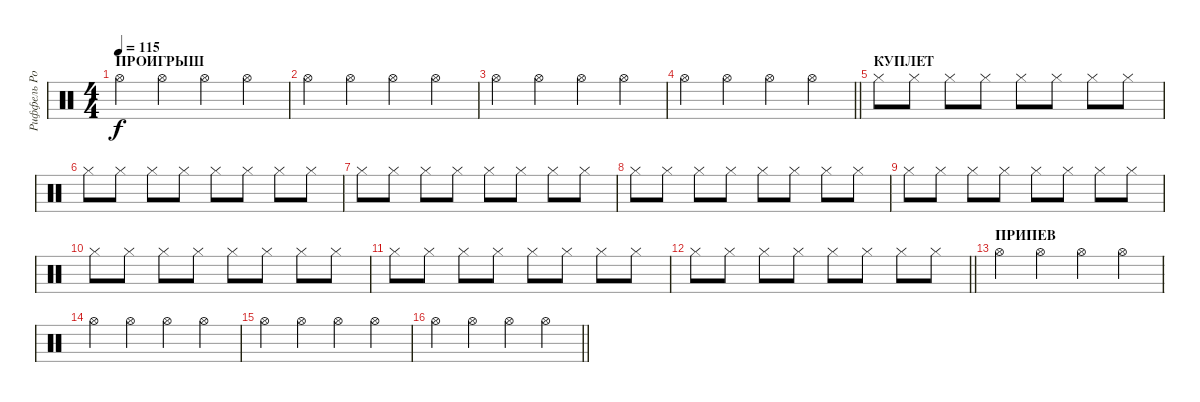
\track ("Риффель Роман (хэты)" "Риффель Ро") {instrument percussion}
\staff {score}
\articulation defaults
\ts (4 4)
\section ("" "ПРОИГРЫШ")
\tempo 115
\clef neutral
\ks c "Hi-Hat (open)".4{dy f} "Hi-Hat (open)".4 "Hi-Hat (open)".4 "Hi-Hat (open)".4
|
"Hi-Hat (open)".4 "Hi-Hat (open)".4 "Hi-Hat (open)".4 "Hi-Hat (open)".4 |
"Hi-Hat (open)".4 "Hi-Hat (open)".4 "Hi-Hat (open)".4 "Hi-Hat (open)".4 |
\barLineRight lightlight "Hi-Hat (open)".4 "Hi-Hat (open)".4 "Hi-Hat (open)".4 "Hi-Hat (open)".4
|
\section ("" "КУПЛЕТ")
"Hi-Hat (closed)".8 "Hi-Hat (closed)".8 "Hi-Hat (closed)".8 "Hi-Hat (closed)".8 "Hi-Hat (closed)".8 "Hi-Hat (closed)".8 "Hi-Hat (closed)".8 "Hi-Hat (closed)".8 |
"Hi-Hat (closed)".8 "Hi-Hat (closed)".8 "Hi-Hat (closed)".8 "Hi-Hat (closed)".8 "Hi-Hat (closed)".8 "Hi-Hat (closed)".8 "Hi-Hat (closed)".8 "Hi-Hat (closed)".8 |
"Hi-Hat (closed)".8 "Hi-Hat (closed)".8 "Hi-Hat (closed)".8 "Hi-Hat (closed)".8 "Hi-Hat (closed)".8 "Hi-Hat (closed)".8 "Hi-Hat (closed)".8 "Hi-Hat (closed)".8 |
"Hi-Hat (closed)".8 "Hi-Hat (closed)".8 "Hi-Hat (closed)".8 "Hi-Hat (closed)".8 "Hi-Hat (closed)".8 "Hi-Hat (closed)".8 "Hi-Hat (closed)".8 "Hi-Hat (closed)".8 |
"Hi-Hat (closed)".8 "Hi-Hat (closed)".8 "Hi-Hat (closed)".8 "Hi-Hat (closed)".8 "Hi-Hat (closed)".8 "Hi-Hat (closed)".8 "Hi-Hat (closed)".8 "Hi-Hat (closed)".8 |
"Hi-Hat (closed)".8 "Hi-Hat (closed)".8 "Hi-Hat (closed)".8 "Hi-Hat (closed)".8 "Hi-Hat (closed)".8 "Hi-Hat (closed)".8 "Hi-Hat (closed)".8 "Hi-Hat (closed)".8 |
"Hi-Hat (closed)".8 "Hi-Hat (closed)".8 "Hi-Hat (closed)".8 "Hi-Hat (closed)".8 "Hi-Hat (closed)".8 "Hi-Hat (closed)".8 "Hi-Hat (closed)".8 "Hi-Hat (closed)".8 |
\barLineRight lightlight "Hi-Hat (closed)".8 "Hi-Hat (closed)".8 "Hi-Hat (closed)".8 "Hi-Hat (closed)".8 "Hi-Hat (closed)".8 "Hi-Hat (closed)".8 "Hi-Hat (closed)".8 "Hi-Hat (closed)".8
|
\section ("" "ПРИПЕВ")
"Hi-Hat (open)".4 "Hi-Hat (open)".4 "Hi-Hat (open)".4 "Hi-Hat (open)".4 |
"Hi-Hat (open)".4 "Hi-Hat (open)".4 "Hi-Hat (open)".4 "Hi-Hat (open)".4 |
"Hi-Hat (open)".4 "Hi-Hat (open)".4 "Hi-Hat (open)".4 "Hi-Hat (open)".4 |
\barLineRight lightlight "Hi-Hat (open)".4 "Hi-Hat (open)".4 "Hi-Hat (open)".4 "Hi-Hat (open)".4
